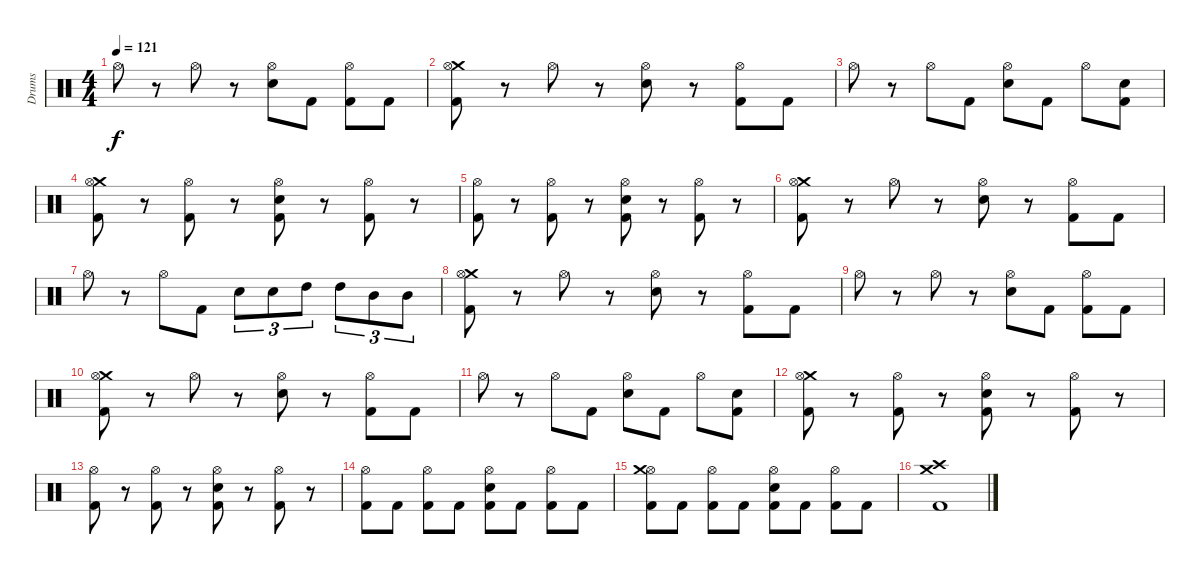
\track ("Drums" "Drums") {instrument percussion}
\staff {score}
\articulation defaults
\ts (4 4)
\tempo 121
\clef neutral
\ks c "Hi-Hat (open)".8{dy f}
r.8 "Hi-Hat (open)".8 r.8 ("Electric Snare (hit)" "Hi-Hat (open)").8 "Kick (hit) 2".8 ("Hi-Hat (open)" "Kick (hit) 2").8 "Kick (hit) 2".8 |
("Crash medium (hit)" "Hi-Hat (open)" "Kick (hit) 2").8 r.8 "Hi-Hat (open)".8 r.8 ("Electric Snare (hit)" "Hi-Hat (open)").8 r.8 ("Hi-Hat (open)" "Kick (hit) 2").8 "Kick (hit) 2".8 |
"Hi-Hat (open)".8 r.8 "Hi-Hat (open)".8 "Kick (hit) 2".8 ("Electric Snare (hit)" "Hi-Hat (open)").8 "Kick (hit) 2".8 "Hi-Hat (open)".8 ("Electric Snare (hit)" "Kick (hit) 2").8 |
("Crash medium (hit)" "Hi-Hat (open)" "Kick (hit) 2").8 r.8 ("Hi-Hat (open)" "Kick (hit) 2").8 r.8 ("Electric Snare (hit)" "Hi-Hat (open)" "Kick (hit) 2").8 r.8 ("Hi-Hat (open)" "Kick (hit) 2").8 r.8 |
("Hi-Hat (open)" "Kick (hit) 2").8 r.8 ("Hi-Hat (open)" "Kick (hit) 2").8 r.8 ("Electric Snare (hit)" "Hi-Hat (open)" "Kick (hit) 2").8 r.8 ("Hi-Hat (open)" "Kick (hit) 2").8 r.8 |
("Crash medium (hit)" "Hi-Hat (open)" "Kick (hit) 2").8 r.8 "Hi-Hat (open)".8 r.8 ("Electric Snare (hit)" "Hi-Hat (open)").8 r.8 ("Hi-Hat (open)" "Kick (hit) 2").8 "Kick (hit) 2".8 |
"Hi-Hat (open)".8 r.8 "Hi-Hat (open)".8 "Kick (hit) 2".8 "Electric Snare (hit)".8{tu (3 2)} "Electric Snare (hit)".8{tu (3 2)} "High Tom (hit)".8{tu (3 2)} "High Tom (hit)".8{tu (3 2)} "Mid Tom (hit)".8{tu (3 2)} "Mid Tom (hit)".8{tu (3 2)} |
("Crash medium (hit)" "Hi-Hat (open)" "Kick (hit) 2").8 r.8 "Hi-Hat (open)".8 r.8 ("Electric Snare (hit)" "Hi-Hat (open)").8 r.8 ("Hi-Hat (open)" "Kick (hit) 2").8 "Kick (hit) 2".8 |
"Hi-Hat (open)".8 r.8 "Hi-Hat (open)".8 r.8 ("Electric Snare (hit)" "Hi-Hat (open)").8 "Kick (hit) 2".8 ("Hi-Hat (open)" "Kick (hit) 2").8 "Kick (hit) 2".8 |
("Crash medium (hit)" "Hi-Hat (open)" "Kick (hit) 2").8 r.8 "Hi-Hat (open)".8 r.8 ("Electric Snare (hit)" "Hi-Hat (open)").8 r.8 ("Hi-Hat (open)" "Kick (hit) 2").8 "Kick (hit) 2".8 |
"Hi-Hat (open)".8 r.8 "Hi-Hat (open)".8 "Kick (hit) 2".8 ("Electric Snare (hit)" "Hi-Hat (open)").8 "Kick (hit) 2".8 "Hi-Hat (open)".8 ("Electric Snare (hit)" "Kick (hit) 2").8 |
("Crash medium (hit)" "Hi-Hat (open)" "Kick (hit) 2").8 r.8 ("Hi-Hat (open)" "Kick (hit) 2").8 r.8 ("Electric Snare (hit)" "Hi-Hat (open)" "Kick (hit) 2").8 r.8 ("Hi-Hat (open)" "Kick (hit) 2").8 r.8 |
("Hi-Hat (open)" "Kick (hit) 2").8 r.8 ("Hi-Hat (open)" "Kick (hit) 2").8 r.8 ("Electric Snare (hit)" "Hi-Hat (open)" "Kick (hit) 2").8 r.8 ("Hi-Hat (open)" "Kick (hit) 2").8 r.8 |
("Hi-Hat (open)" "Kick (hit) 2").8 "Kick (hit) 2".8 ("Hi-Hat (open)" "Kick (hit) 2").8 "Kick (hit) 2".8 ("Hi-Hat (open)" "Electric Snare (hit)" "Kick (hit) 2").8 "Kick (hit) 2".8 ("Hi-Hat (open)" "Kick (hit) 2").8 "Kick (hit) 2".8 |
("Hi-Hat (open)" "Crash medium (hit)" "Kick (hit) 2").8 "Kick (hit) 2".8 ("Hi-Hat (open)" "Kick (hit) 2").8 "Kick (hit) 2".8 ("Hi-Hat (open)" "Electric Snare (hit)" "Kick (hit) 2").8 "Kick (hit) 2".8 ("Hi-Hat (open)" "Kick (hit) 2").8 "Kick (hit) 2".8 |
("Crash medium (hit)" "Crash high (hit)" "Kick (hit) 2").1
